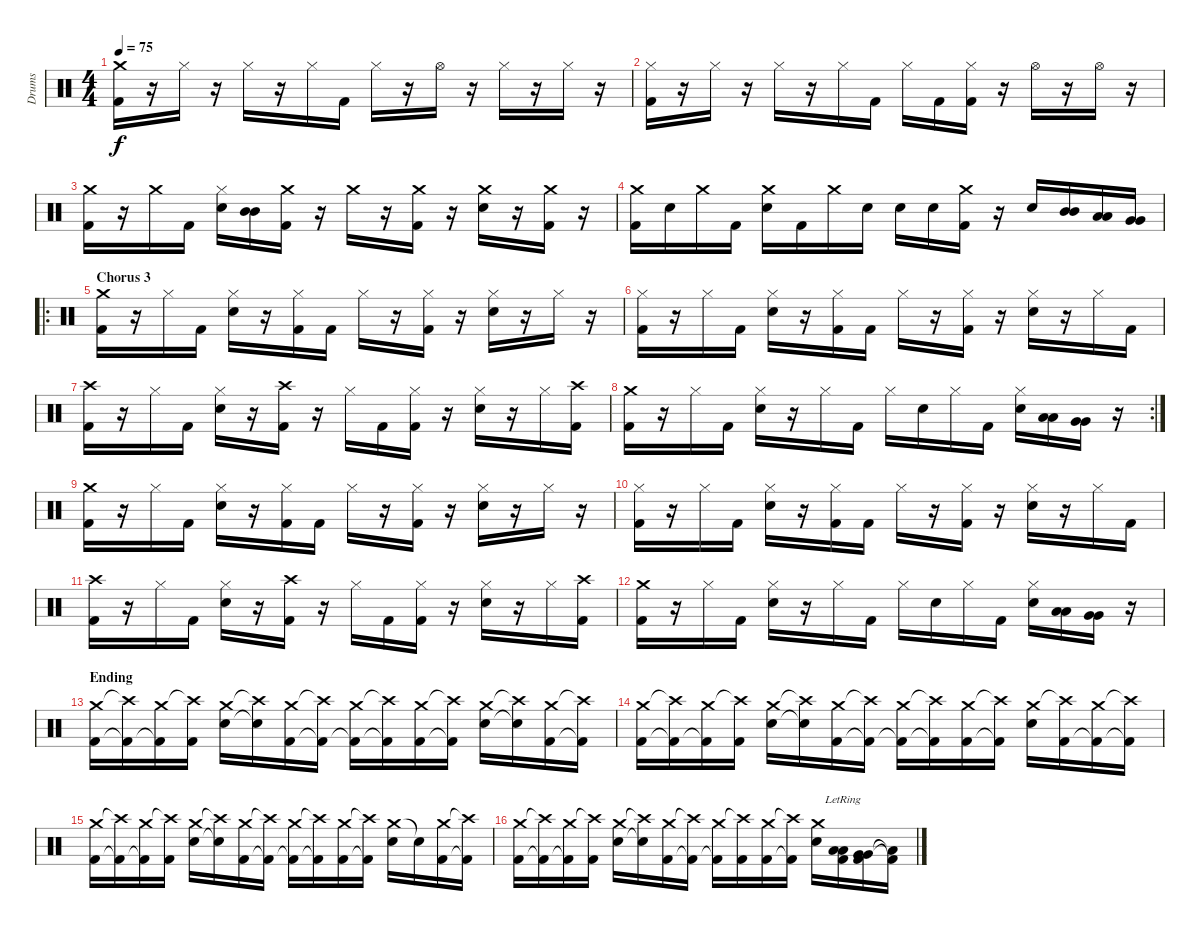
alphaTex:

\track ("Drums" "Drums") {instrument percussion}
\staff {score}
\articulation defaults
\ts (4 4)
\tempo 75
\clef neutral
\ks c
("Crash medium (hit)" "Kick (hit) 2").16{dy f} r.16 "Hi-Hat (closed)".16 r.16 "Hi-Hat (closed)".16 r.16 "Hi-Hat (closed)".16 "Kick (hit) 2".16 "Hi-Hat (closed)".16 r.16 "Hi-Hat (open)".16 r.16 "Hi-Hat (closed)".16 r.16 "Hi-Hat (closed)".16 r.16 |
("Hi-Hat (closed)" "Kick (hit) 2").16 r.16 "Hi-Hat (closed)".16 r.16 "Hi-Hat (closed)".16 r.16 "Hi-Hat (closed)".16 "Kick (hit) 2".16 "Hi-Hat (closed)".16 "Kick (hit) 2".16 ("Hi-Hat (closed)" "Kick (hit) 2").16 r.16 "Hi-Hat (open)".16 r.16 "Hi-Hat (open)".16 r.16 |
("Crash medium (hit)" "Kick (hit) 2").16 r.16 "Crash medium (hit)".16 "Kick (hit) 2".16 ("Hi-Hat (closed)" "Electric Snare (hit)").16 ("Mid Tom (hit)" "Mid Tom (hit)").16 ("Crash medium (hit)" "Kick (hit) 2").16 r.16 "Crash medium (hit)".16 r.16 ("Crash medium (hit)" "Kick (hit) 2").16 r.16 ("Crash medium (hit)" "Electric Snare (hit)").16 r.16 ("Crash medium (hit)" "Kick (hit) 2").16 r.16 |
("Crash medium (hit)" "Kick (hit) 2").16 "Electric Snare (hit)".16 "Crash medium (hit)".16 "Kick (hit) 2".16 ("Crash medium (hit)" "Electric Snare (hit)").16 "Kick (hit) 2".16 "Crash medium (hit)".16 "Electric Snare (hit)".16 "Electric Snare (hit)".16 "Electric Snare (hit)".16 ("Crash medium (hit)" "Kick (hit) 2").16 r.16 "Electric Snare (hit)".16 ("Mid Tom (hit)" "Mid Tom (hit)").16 ("Low Tom (hit)" "Low Tom (hit)").16 ("Very Low Tom (hit)" "Very Low Tom (hit)").16 |
\ro
\section ("" "Chorus 3")
("Crash medium (hit)" "Kick (hit) 2").16 r.16 "Hi-Hat (closed)".16 "Kick (hit) 2".16 ("Hi-Hat (closed)" "Electric Snare (hit)").16 r.16 ("Hi-Hat (closed)" "Kick (hit) 2").16 "Kick (hit) 2".16 "Hi-Hat (closed)".16 r.16 ("Hi-Hat (closed)" "Kick (hit) 2").16 r.16 ("Hi-Hat (closed)" "Electric Snare (hit)").16 r.16 "Hi-Hat (closed)".16 r.16 |
("Hi-Hat (closed)" "Kick (hit) 2").16 r.16 "Hi-Hat (closed)".16 "Kick (hit) 2".16 ("Hi-Hat (closed)" "Electric Snare (hit)").16 r.16 ("Hi-Hat (closed)" "Kick (hit) 2").16 "Kick (hit) 2".16 "Hi-Hat (closed)".16 r.16 ("Hi-Hat (closed)" "Kick (hit) 2").16 r.16 ("Hi-Hat (closed)" "Electric Snare (hit)").16 r.16 "Hi-Hat (closed)".16 "Kick (hit) 2".16 |
("Crash high (hit)" "Kick (hit) 2").16 r.16 "Hi-Hat (closed)".16 "Kick (hit) 2".16 ("Hi-Hat (closed)" "Electric Snare (hit)").16 r.16 ("Crash high (hit)" "Kick (hit) 2").16 r.16 "Hi-Hat (closed)".16 "Kick (hit) 2".16 ("Hi-Hat (closed)" "Kick (hit) 2").16 r.16 ("Hi-Hat (closed)" "Electric Snare (hit)").16 r.16 "Hi-Hat (closed)".16 ("Crash high (hit)" "Kick (hit) 2").16 |
\rc 2
("Crash medium (hit)" "Kick (hit) 2").16 r.16 "Hi-Hat (closed)".16 "Kick (hit) 2".16 ("Hi-Hat (closed)" "Electric Snare (hit)").16 r.16 "Hi-Hat (closed)".16 "Kick (hit) 2".16 "Hi-Hat (closed)".16 "Electric Snare (hit)".16 "Hi-Hat (closed)".16 "Kick (hit) 2".16 ("Hi-Hat (closed)" "Electric Snare (hit)").16 ("Low Tom (hit)" "Low Tom (hit)").16 ("Very Low Tom (hit)" "Very Low Tom (hit)").16 r.16 |
("Crash medium (hit)" "Kick (hit) 2").16 r.16 "Hi-Hat (closed)".16 "Kick (hit) 2".16 ("Hi-Hat (closed)" "Electric Snare (hit)").16 r.16 ("Hi-Hat (closed)" "Kick (hit) 2").16 "Kick (hit) 2".16 "Hi-Hat (closed)".16 r.16 ("Hi-Hat (closed)" "Kick (hit) 2").16 r.16 ("Hi-Hat (closed)" "Electric Snare (hit)").16 r.16 "Hi-Hat (closed)".16 r.16 |
("Hi-Hat (closed)" "Kick (hit) 2").16 r.16 "Hi-Hat (closed)".16 "Kick (hit) 2".16 ("Hi-Hat (closed)" "Electric Snare (hit)").16 r.16 ("Hi-Hat (closed)" "Kick (hit) 2").16 "Kick (hit) 2".16 "Hi-Hat (closed)".16 r.16 ("Hi-Hat (closed)" "Kick (hit) 2").16 r.16 ("Hi-Hat (closed)" "Electric Snare (hit)").16 r.16 "Hi-Hat (closed)".16 "Kick (hit) 2".16 |
("Crash high (hit)" "Kick (hit) 2").16 r.16 "Hi-Hat (closed)".16 "Kick (hit) 2".16 ("Hi-Hat (closed)" "Electric Snare (hit)").16 r.16 ("Crash high (hit)" "Kick (hit) 2").16 r.16 "Hi-Hat (closed)".16 "Kick (hit) 2".16 ("Hi-Hat (closed)" "Kick (hit) 2").16 r.16 ("Hi-Hat (closed)" "Electric Snare (hit)").16 r.16 "Hi-Hat (closed)".16 ("Crash high (hit)" "Kick (hit) 2").16 |
("Crash medium (hit)" "Kick (hit) 2").16 r.16 "Hi-Hat (closed)".16 "Kick (hit) 2".16 ("Hi-Hat (closed)" "Electric Snare (hit)").16 r.16 "Hi-Hat (closed)".16 "Kick (hit) 2".16 "Hi-Hat (closed)".16 "Electric Snare (hit)".16 "Hi-Hat (closed)".16 "Kick (hit) 2".16 ("Hi-Hat (closed)" "Electric Snare (hit)").16 ("Low Tom (hit)" "Low Tom (hit)").16 ("Very Low Tom (hit)" "Very Low Tom (hit)").16 r.16 |
\section ("" "Ending")
("Crash medium (hit)" "Kick (hit) 2").16 ("Crash high (hit)"{t} "Kick (hit) 2"{t}).16 ("Crash medium (hit)" "Kick (hit) 2"{t}).16 ("Crash high (hit)"{t} "Kick (hit) 2").16 ("Crash medium (hit)" "Electric Snare (hit)").16 ("Crash high (hit)"{t} "Electric Snare (hit)"{t}).16 ("Crash medium (hit)" "Kick (hit) 2").16 ("Crash high (hit)"{t} "Kick (hit) 2"{t}).16 ("Crash medium (hit)" "Kick (hit) 2"{t}).16 ("Crash high (hit)"{t} "Kick (hit) 2"{t}).16 ("Crash medium (hit)" "Kick (hit) 2").16 ("Crash high (hit)"{t} "Kick (hit) 2"{t}).16 ("Crash medium (hit)" "Electric Snare (hit)").16 ("Crash high (hit)"{t} "Electric Snare (hit)"{t}).16 ("Crash medium (hit)" "Kick (hit) 2").16 ("Crash high (hit)"{t} "Kick (hit) 2"{t}).16 |
("Crash medium (hit)" "Kick (hit) 2").16 ("Crash high (hit)"{t} "Kick (hit) 2"{t}).16 ("Crash medium (hit)" "Kick (hit) 2"{t}).16 ("Crash high (hit)"{t} "Kick (hit) 2").16 ("Crash medium (hit)" "Electric Snare (hit)").16 ("Crash high (hit)"{t} "Electric Snare (hit)"{t}).16 ("Crash medium (hit)" "Kick (hit) 2").16 ("Crash high (hit)"{t} "Kick (hit) 2"{t}).16 ("Crash medium (hit)" "Kick (hit) 2"{t}).16 ("Crash high (hit)"{t} "Kick (hit) 2"{t}).16 ("Crash medium (hit)" "Kick (hit) 2").16 ("Crash high (hit)"{t} "Kick (hit) 2"{t}).16 ("Crash medium (hit)" "Electric Snare (hit)").16 ("Crash high (hit)"{t} "Kick (hit) 2").16 ("Crash medium (hit)" "Kick (hit) 2"{t}).16 ("Crash high (hit)"{t} "Kick (hit) 2"{t}).16 |
("Crash medium (hit)" "Kick (hit) 2").16 ("Crash high (hit)"{t} "Kick (hit) 2"{t}).16 ("Crash medium (hit)" "Kick (hit) 2"{t}).16 ("Crash high (hit)"{t} "Kick (hit) 2").16 ("Crash medium (hit)" "Electric Snare (hit)").16 ("Crash high (hit)"{t} "Electric Snare (hit)"{t}).16 ("Crash medium (hit)" "Kick (hit) 2").16 ("Crash high (hit)"{t} "Kick (hit) 2"{t}).16 ("Crash medium (hit)" "Kick (hit) 2"{t}).16 ("Crash high (hit)"{t} "Kick (hit) 2"{t}).16 ("Crash medium (hit)" "Kick (hit) 2").16 ("Crash high (hit)"{t} "Kick (hit) 2"{t}).16 ("Crash medium (hit)" "Electric Snare (hit)").16 "Electric Snare (hit)"{t}.16 ("Crash medium (hit)" "Kick (hit) 2").16 ("Crash high (hit)"{t} "Kick (hit) 2"{t}).16 |
("Crash medium (hit)" "Kick (hit) 2").16 ("Crash high (hit)"{t} "Kick (hit) 2"{t}).16 ("Crash medium (hit)" "Kick (hit) 2"{t}).16 ("Crash high (hit)"{t} "Kick (hit) 2").16 ("Crash medium (hit)" "Electric Snare (hit)").16 ("Crash high (hit)"{t} "Electric Snare (hit)"{t}).16 ("Crash medium (hit)" "Kick (hit) 2").16 ("Crash high (hit)"{t} "Kick (hit) 2"{t}).16 ("Crash medium (hit)" "Kick (hit) 2"{t}).16 ("Crash high (hit)"{t} "Kick (hit) 2").16 ("Crash medium (hit)" "Kick (hit) 2").16 ("Crash high (hit)"{t} "Kick (hit) 2"{t}).16 ("Crash medium (hit)" "Electric Snare (hit)").16 ("Low Tom (hit)"{lr} "Low Tom (hit)" "Kick (hit) 2").16 ("Very Low Tom (hit)"{lr} "Very Low Tom (hit)" "Kick (hit) 2").16 ("Low Tom (hit)"{t} "Kick (hit) 2"{t}).16
